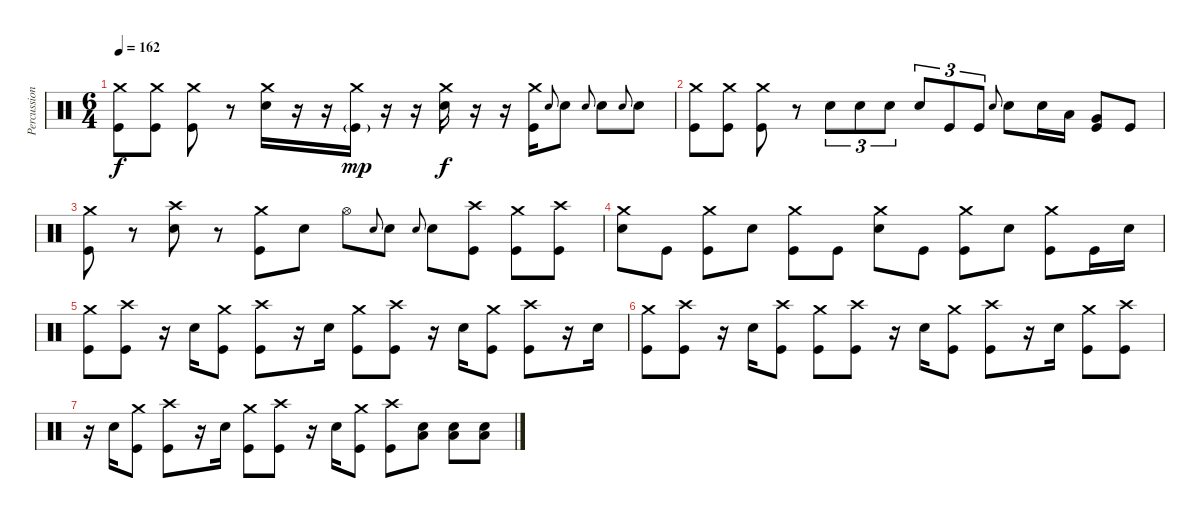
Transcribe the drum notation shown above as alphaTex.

\track ("Percussion" "Percussion") {instrument percussion}
\staff {score}
\articulation defaults
\ts (6 4)
\tempo 162
\clef neutral
\ks c
("Crash medium (hit)" "Kick (hit)").8{dy f} ("Crash medium (hit)" "Kick (hit)").8 ("Crash medium (hit)" "Kick (hit)").8 r.8 ("Crash medium (hit)" "Snare (hit) 2").16 r.16 r.16 ("Crash medium (hit)" "Kick (hit)"{g}).16{dy mp} r.16 r.16 ("Crash medium (hit)" "Snare (hit) 2").16{dy f} r.16 r.16 ("Crash medium (hit)" "Kick (hit)").16 "Snare (hit) 2".8{gr onbeat} "Snare (hit) 2".8 "Snare (hit) 2".8{gr onbeat} "Snare (hit) 2".8 "Snare (hit) 2".8{gr onbeat} "Snare (hit) 2".8 |
("Crash medium (hit)" "Kick (hit)").8 ("Crash medium (hit)" "Kick (hit)").8 ("Crash medium (hit)" "Kick (hit)").8 r.8 "Snare (hit) 2".8{tu (3 2)} "Snare (hit) 2".8{tu (3 2)} "Snare (hit) 2".8{tu (3 2)} "Snare (hit) 2".8{tu (3 2)} "Kick (hit)".8{tu (3 2)} "Kick (hit)".8{tu (3 2)} "Snare (hit) 2".8{gr onbeat} "Snare (hit) 2".8 "Snare (hit) 2".16 "Low Tom (hit)".16 ("Very Low Tom (hit)" "Kick (hit)").8 "Kick (hit)".8 |
("Crash medium (hit)" "Kick (hit)").8 r.8 ("Crash high (hit)" "Snare (hit) 2").8 r.8 ("Crash medium (hit)" "Kick (hit)").8 "Snare (hit) 2".8 "Hi-Hat (open)".8 "Snare (hit) 2".8{gr onbeat} "Snare (hit) 2".8 "Snare (hit) 2".8{gr onbeat} "Snare (hit) 2".8 ("Crash high (hit)" "Kick (hit)").8 ("Crash medium (hit)" "Kick (hit)").8 ("Crash high (hit)" "Kick (hit)").8 |
("Crash medium (hit)" "Snare (hit) 2").8 "Kick (hit)".8 ("Crash medium (hit)" "Kick (hit)").8 "Snare (hit) 2".8 ("Crash medium (hit)" "Kick (hit)").8 "Kick (hit)".8 ("Crash medium (hit)" "Snare (hit) 2").8 "Kick (hit)".8 ("Crash medium (hit)" "Kick (hit)").8 "Snare (hit) 2".8 ("Crash medium (hit)" "Kick (hit)").8 "Kick (hit)".16 "Snare (hit) 2".16 |
("Crash medium (hit)" "Kick (hit)").8 ("Crash high (hit)" "Kick (hit)").8 r.16 "Snare (hit) 2".16 ("Crash medium (hit)" "Kick (hit)").8 ("Crash high (hit)" "Kick (hit)").8 r.16 "Snare (hit) 2".16 ("Crash medium (hit)" "Kick (hit)").8 ("Crash high (hit)" "Kick (hit)").8 r.16 "Snare (hit) 2".16 ("Crash medium (hit)" "Kick (hit)").8 ("Crash high (hit)" "Kick (hit)").8 r.16 "Snare (hit) 2".16 |
("Crash medium (hit)" "Kick (hit)").8 ("Crash high (hit)" "Kick (hit)").8 r.16 "Snare (hit) 2".16 ("Crash high (hit)" "Kick (hit)").8 ("Crash medium (hit)" "Kick (hit)").8 ("Crash high (hit)" "Kick (hit)").8 r.16 "Snare (hit) 2".16 ("Crash medium (hit)" "Kick (hit)").8 ("Crash high (hit)" "Kick (hit)").8 r.16 "Snare (hit) 2".16 ("Crash medium (hit)" "Kick (hit)").8 ("Crash high (hit)" "Kick (hit)").8 |
r.16 "Snare (hit) 2".16 ("Crash medium (hit)" "Kick (hit)").8 ("Crash high (hit)" "Kick (hit)").8 r.16 "Snare (hit) 2".16 ("Crash medium (hit)" "Kick (hit)").8 ("Crash high (hit)" "Kick (hit)").8 r.16 "Snare (hit) 2".16 ("Crash medium (hit)" "Kick (hit)").8 ("Crash high (hit)" "Kick (hit)").8 ("Low Floor Tom (hit)" "Snare (hit) 2").8 ("Low Floor Tom (hit)" "Snare (hit) 2").8 ("Low Floor Tom (hit)" "Snare (hit) 2").8
